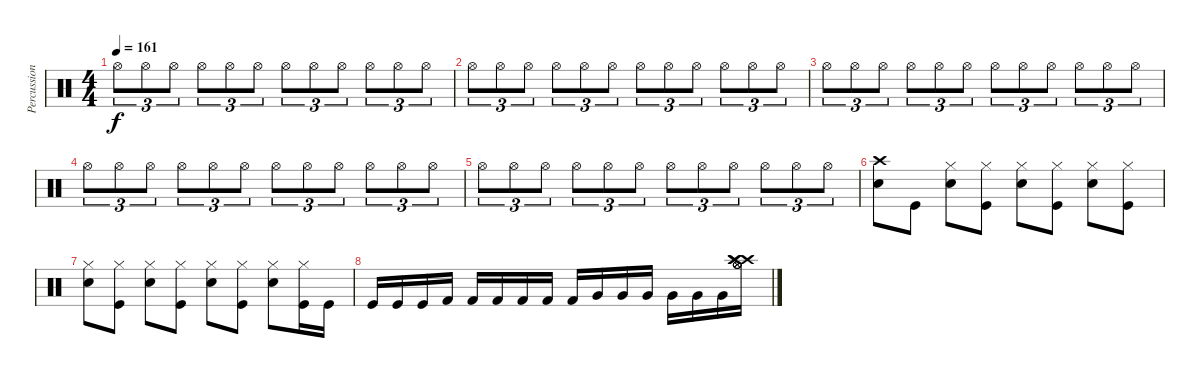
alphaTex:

\track ("Percussions" "Percussion") {instrument percussion}
\staff {score}
\articulation defaults
\ts (4 4)
\tempo 161
\clef neutral
\ks c "Hi-Hat (open)".8{tu (3 2) dy f} "Hi-Hat (open)".8{tu (3 2)} "Hi-Hat (open)".8{tu (3 2)} "Hi-Hat (open)".8{tu (3 2)} "Hi-Hat (open)".8{tu (3 2)} "Hi-Hat (open)".8{tu (3 2)} "Hi-Hat (open)".8{tu (3 2)} "Hi-Hat (open)".8{tu (3 2)} "Hi-Hat (open)".8{tu (3 2)} "Hi-Hat (open)".8{tu (3 2)} "Hi-Hat (open)".8{tu (3 2)} "Hi-Hat (open)".8{tu (3 2)}
|
"Hi-Hat (open)".8{tu (3 2)} "Hi-Hat (open)".8{tu (3 2)} "Hi-Hat (open)".8{tu (3 2)} "Hi-Hat (open)".8{tu (3 2)} "Hi-Hat (open)".8{tu (3 2)} "Hi-Hat (open)".8{tu (3 2)} "Hi-Hat (open)".8{tu (3 2)} "Hi-Hat (open)".8{tu (3 2)} "Hi-Hat (open)".8{tu (3 2)} "Hi-Hat (open)".8{tu (3 2)} "Hi-Hat (open)".8{tu (3 2)} "Hi-Hat (open)".8{tu (3 2)} |
"Hi-Hat (open)".8{tu (3 2)} "Hi-Hat (open)".8{tu (3 2)} "Hi-Hat (open)".8{tu (3 2)} "Hi-Hat (open)".8{tu (3 2)} "Hi-Hat (open)".8{tu (3 2)} "Hi-Hat (open)".8{tu (3 2)} "Hi-Hat (open)".8{tu (3 2)} "Hi-Hat (open)".8{tu (3 2)} "Hi-Hat (open)".8{tu (3 2)} "Hi-Hat (open)".8{tu (3 2)} "Hi-Hat (open)".8{tu (3 2)} "Hi-Hat (open)".8{tu (3 2)} |
"Hi-Hat (open)".8{tu (3 2)} "Hi-Hat (open)".8{tu (3 2)} "Hi-Hat (open)".8{tu (3 2)} "Hi-Hat (open)".8{tu (3 2)} "Hi-Hat (open)".8{tu (3 2)} "Hi-Hat (open)".8{tu (3 2)} "Hi-Hat (open)".8{tu (3 2)} "Hi-Hat (open)".8{tu (3 2)} "Hi-Hat (open)".8{tu (3 2)} "Hi-Hat (open)".8{tu (3 2)} "Hi-Hat (open)".8{tu (3 2)} "Hi-Hat (open)".8{tu (3 2)} |
"Hi-Hat (open)".8{tu (3 2)} "Hi-Hat (open)".8{tu (3 2)} "Hi-Hat (open)".8{tu (3 2)} "Hi-Hat (open)".8{tu (3 2)} "Hi-Hat (open)".8{tu (3 2)} "Hi-Hat (open)".8{tu (3 2)} "Hi-Hat (open)".8{tu (3 2)} "Hi-Hat (open)".8{tu (3 2)} "Hi-Hat (open)".8{tu (3 2)} "Hi-Hat (open)".8{tu (3 2)} "Hi-Hat (open)".8{tu (3 2)} "Hi-Hat (open)".8{tu (3 2)} |
("Crash high (hit)" "Snare (hit) 2").8 "Kick (hit)".8 ("Hi-Hat (closed)" "Snare (hit) 2").8 ("Kick (hit)" "Hi-Hat (closed)").8 ("Hi-Hat (closed)" "Snare (hit) 2").8 ("Kick (hit)" "Hi-Hat (closed)").8 ("Hi-Hat (closed)" "Snare (hit) 2").8 ("Kick (hit)" "Hi-Hat (closed)").8 |
("Hi-Hat (closed)" "Snare (hit) 2").8 ("Kick (hit)" "Hi-Hat (closed)").8 ("Hi-Hat (closed)" "Snare (hit) 2").8 ("Kick (hit)" "Hi-Hat (closed)").8 ("Hi-Hat (closed)" "Snare (hit) 2").8 ("Kick (hit)" "Hi-Hat (closed)").8 ("Hi-Hat (closed)" "Snare (hit) 2").8 ("Kick (hit)" "Hi-Hat (closed)").16 "Kick (hit)".16 |
"Kick (hit)".16 "Kick (hit)".16 "Kick (hit)".16 "Kick (hit) 2".16 "Kick (hit) 2".16 "Kick (hit) 2".16 "Kick (hit) 2".16 "Kick (hit) 2".16 "Kick (hit) 2".16 "Very Low Tom (hit)".16 "Very Low Tom (hit)".16 "Very Low Tom (hit)".16 "Very Low Tom (hit)".16 "Very Low Tom (hit)".16 "Very Low Tom (hit)".16 ("Crash high (hit)" "Hi-Hat (open)" "Hi-Hat (open)" "Crash high (hit)" "Crash high (hit)" "Hi-Hat (open)").16
